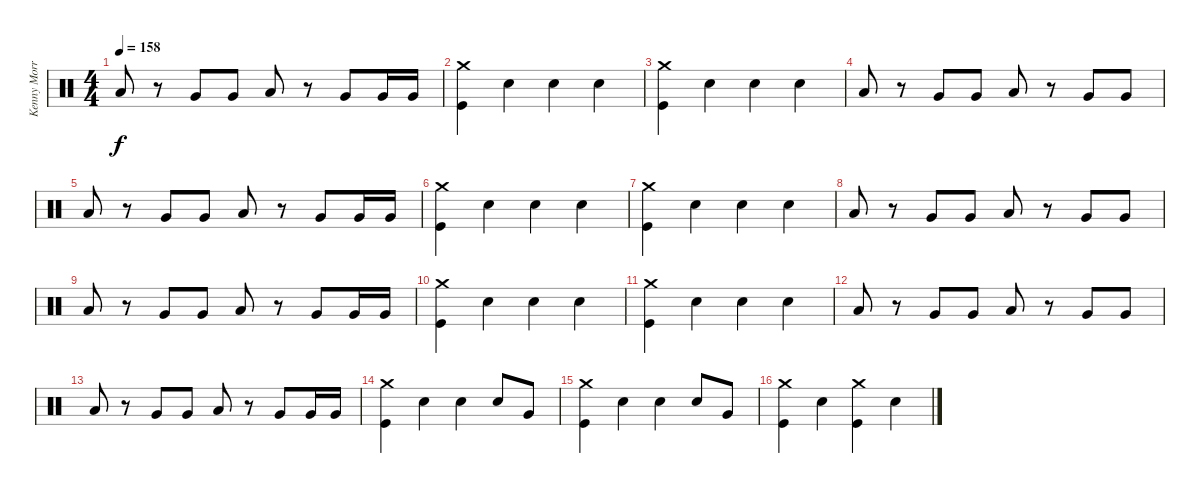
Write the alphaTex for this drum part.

\track ("Kenny Morris" "Kenny Morr") {instrument percussion}
\staff {score}
\articulation defaults
\ts (4 4)
\tempo 158
\clef neutral
\ks c "Low Tom (hit)".8{dy f}
r.8 "Very Low Tom (hit)".8 "Very Low Tom (hit)".8 "Low Tom (hit)".8 r.8 "Very Low Tom (hit)".8 "Very Low Tom (hit)".16 "Very Low Tom (hit)".16 |
("Crash medium (hit)" "Kick (hit)").4 "Snare (hit) 2".4 "Snare (hit) 2".4 "Snare (hit) 2".4 |
("Crash medium (hit)" "Kick (hit)").4 "Snare (hit) 2".4 "Snare (hit) 2".4 "Snare (hit) 2".4 |
"Low Tom (hit)".8 r.8 "Very Low Tom (hit)".8 "Very Low Tom (hit)".8 "Low Tom (hit)".8 r.8 "Very Low Tom (hit)".8 "Very Low Tom (hit)".8 |
"Low Tom (hit)".8 r.8 "Very Low Tom (hit)".8 "Very Low Tom (hit)".8 "Low Tom (hit)".8 r.8 "Very Low Tom (hit)".8 "Very Low Tom (hit)".16 "Very Low Tom (hit)".16 |
("Crash medium (hit)" "Kick (hit)").4 "Snare (hit) 2".4 "Snare (hit) 2".4 "Snare (hit) 2".4 |
("Crash medium (hit)" "Kick (hit)").4 "Snare (hit) 2".4 "Snare (hit) 2".4 "Snare (hit) 2".4 |
"Low Tom (hit)".8 r.8 "Very Low Tom (hit)".8 "Very Low Tom (hit)".8 "Low Tom (hit)".8 r.8 "Very Low Tom (hit)".8 "Very Low Tom (hit)".8 |
"Low Tom (hit)".8 r.8 "Very Low Tom (hit)".8 "Very Low Tom (hit)".8 "Low Tom (hit)".8 r.8 "Very Low Tom (hit)".8 "Very Low Tom (hit)".16 "Very Low Tom (hit)".16 |
("Crash medium (hit)" "Kick (hit)").4 "Snare (hit) 2".4 "Snare (hit) 2".4 "Snare (hit) 2".4 |
("Crash medium (hit)" "Kick (hit)").4 "Snare (hit) 2".4 "Snare (hit) 2".4 "Snare (hit) 2".4 |
"Low Tom (hit)".8 r.8 "Very Low Tom (hit)".8 "Very Low Tom (hit)".8 "Low Tom (hit)".8 r.8 "Very Low Tom (hit)".8 "Very Low Tom (hit)".8 |
"Low Tom (hit)".8 r.8 "Very Low Tom (hit)".8 "Very Low Tom (hit)".8 "Low Tom (hit)".8 r.8 "Very Low Tom (hit)".8 "Very Low Tom (hit)".16 "Very Low Tom (hit)".16 |
("Crash medium (hit)" "Kick (hit)").4 "Snare (hit) 2".4 "Snare (hit) 2".4 "Snare (hit) 2".8 "Very Low Tom (hit)".8 |
("Crash medium (hit)" "Kick (hit)").4 "Snare (hit) 2".4 "Snare (hit) 2".4 "Snare (hit) 2".8 "Very Low Tom (hit)".8 |
("Crash medium (hit)" "Kick (hit)").4 "Snare (hit) 2".4 ("Crash medium (hit)" "Kick (hit)").4 "Snare (hit) 2".4
